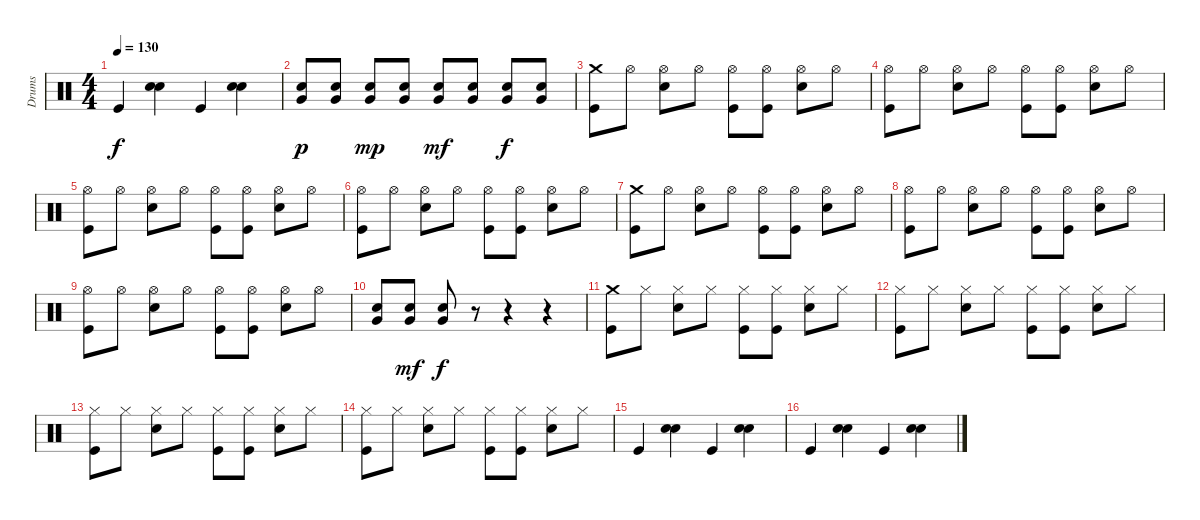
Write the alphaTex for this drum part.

\track ("Drums" "Drums") {instrument percussion}
\staff {score}
\articulation defaults
\ts (4 4)
\tempo 130
\clef neutral
\ks c "Kick (hit)".4{dy f}
("Snare (hit) 2" "Hand Clap (hit)").4 "Kick (hit)".4 ("Snare (hit) 2" "Hand Clap (hit)").4 |
("Snare (hit) 2" "Very Low Tom (hit)").8{dy p} ("Snare (hit) 2" "Very Low Tom (hit)").8 ("Snare (hit) 2" "Very Low Tom (hit)").8{dy mp} ("Snare (hit) 2" "Very Low Tom (hit)").8 ("Snare (hit) 2" "Very Low Tom (hit)").8{dy mf} ("Snare (hit) 2" "Very Low Tom (hit)").8 ("Snare (hit) 2" "Very Low Tom (hit)").8{dy f} ("Snare (hit) 2" "Very Low Tom (hit)").8 |
("Crash medium (hit)" "Kick (hit)").8 "Hi-Hat (open)".8 ("Hi-Hat (open)" "Snare (hit) 2").8 "Hi-Hat (open)".8 ("Hi-Hat (open)" "Kick (hit)").8 ("Hi-Hat (open)" "Kick (hit)").8 ("Hi-Hat (open)" "Snare (hit) 2").8 "Hi-Hat (open)".8 |
("Hi-Hat (open)" "Kick (hit)").8 "Hi-Hat (open)".8 ("Hi-Hat (open)" "Snare (hit) 2").8 "Hi-Hat (open)".8 ("Hi-Hat (open)" "Kick (hit)").8 ("Hi-Hat (open)" "Kick (hit)").8 ("Hi-Hat (open)" "Snare (hit) 2").8 "Hi-Hat (open)".8 |
("Hi-Hat (open)" "Kick (hit)").8 "Hi-Hat (open)".8 ("Hi-Hat (open)" "Snare (hit) 2").8 "Hi-Hat (open)".8 ("Hi-Hat (open)" "Kick (hit)").8 ("Hi-Hat (open)" "Kick (hit)").8 ("Hi-Hat (open)" "Snare (hit) 2").8 "Hi-Hat (open)".8 |
("Hi-Hat (open)" "Kick (hit)").8 "Hi-Hat (open)".8 ("Hi-Hat (open)" "Snare (hit) 2").8 "Hi-Hat (open)".8 ("Hi-Hat (open)" "Kick (hit)").8 ("Hi-Hat (open)" "Kick (hit)").8 ("Hi-Hat (open)" "Snare (hit) 2").8 "Hi-Hat (open)".8 |
("Crash medium (hit)" "Kick (hit)").8 "Hi-Hat (open)".8 ("Hi-Hat (open)" "Snare (hit) 2").8 "Hi-Hat (open)".8 ("Hi-Hat (open)" "Kick (hit)").8 ("Hi-Hat (open)" "Kick (hit)").8 ("Hi-Hat (open)" "Snare (hit) 2").8 "Hi-Hat (open)".8 |
("Hi-Hat (open)" "Kick (hit)").8 "Hi-Hat (open)".8 ("Hi-Hat (open)" "Snare (hit) 2").8 "Hi-Hat (open)".8 ("Hi-Hat (open)" "Kick (hit)").8 ("Hi-Hat (open)" "Kick (hit)").8 ("Hi-Hat (open)" "Snare (hit) 2").8 "Hi-Hat (open)".8 |
("Hi-Hat (open)" "Kick (hit)").8 "Hi-Hat (open)".8 ("Hi-Hat (open)" "Snare (hit) 2").8 "Hi-Hat (open)".8 ("Hi-Hat (open)" "Kick (hit)").8 ("Hi-Hat (open)" "Kick (hit)").8 ("Hi-Hat (open)" "Snare (hit) 2").8 "Hi-Hat (open)".8 |
("Very Low Tom (hit)" "Snare (hit) 2").8 ("Very Low Tom (hit)" "Snare (hit) 2").8{dy mf} ("Very Low Tom (hit)" "Snare (hit) 2").8{dy f} r.8 r.4 r.4 |
("Crash medium (hit)" "Kick (hit)").8 "Hi-Hat (closed)".8 ("Hi-Hat (closed)" "Snare (hit) 2").8 "Hi-Hat (closed)".8 ("Hi-Hat (closed)" "Kick (hit)").8 ("Hi-Hat (closed)" "Kick (hit)").8 ("Hi-Hat (closed)" "Snare (hit) 2").8 "Hi-Hat (closed)".8 |
("Hi-Hat (closed)" "Kick (hit)").8 "Hi-Hat (closed)".8 ("Hi-Hat (closed)" "Snare (hit) 2").8 "Hi-Hat (closed)".8 ("Hi-Hat (closed)" "Kick (hit)").8 ("Hi-Hat (closed)" "Kick (hit)").8 ("Hi-Hat (closed)" "Snare (hit) 2").8 "Hi-Hat (closed)".8 |
("Hi-Hat (closed)" "Kick (hit)").8 "Hi-Hat (closed)".8 ("Hi-Hat (closed)" "Snare (hit) 2").8 "Hi-Hat (closed)".8 ("Hi-Hat (closed)" "Kick (hit)").8 ("Hi-Hat (closed)" "Kick (hit)").8 ("Hi-Hat (closed)" "Snare (hit) 2").8 "Hi-Hat (closed)".8 |
("Hi-Hat (closed)" "Kick (hit)").8 "Hi-Hat (closed)".8 ("Hi-Hat (closed)" "Snare (hit) 2").8 "Hi-Hat (closed)".8 ("Hi-Hat (closed)" "Kick (hit)").8 ("Hi-Hat (closed)" "Kick (hit)").8 ("Hi-Hat (closed)" "Snare (hit) 2").8 "Hi-Hat (closed)".8 |
"Kick (hit)".4 ("Snare (hit) 2" "Hand Clap (hit)").4 "Kick (hit)".4 ("Snare (hit) 2" "Hand Clap (hit)").4 |
"Kick (hit)".4 ("Snare (hit) 2" "Hand Clap (hit)").4 "Kick (hit)".4 ("Snare (hit) 2" "Hand Clap (hit)").4
